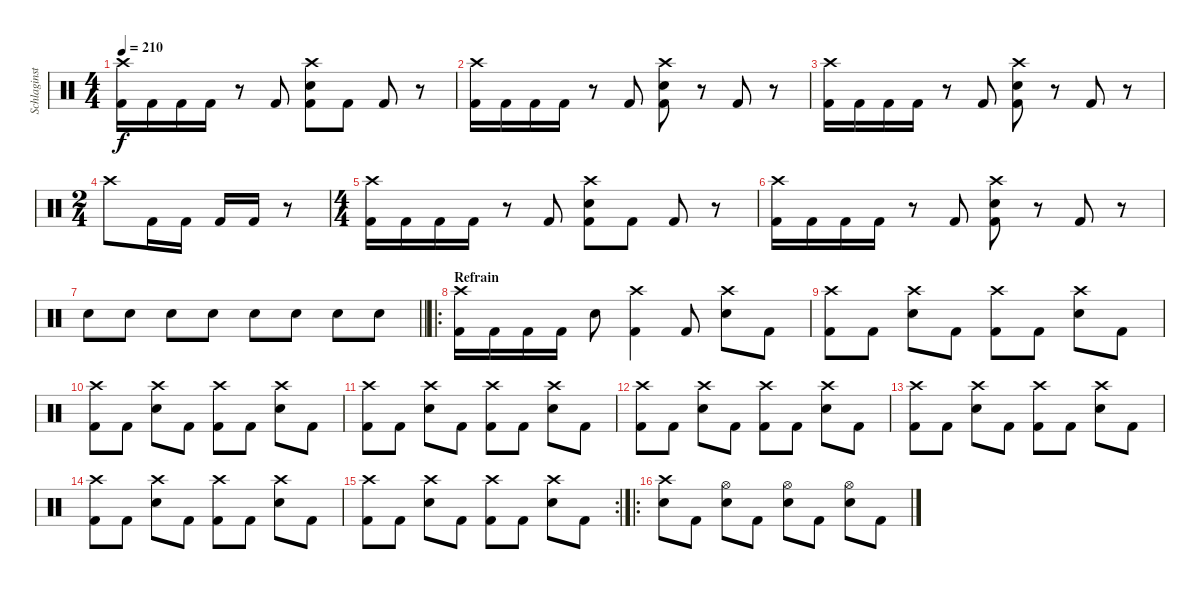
\track ("Schlaginstrumente - Auswahl" "Schlaginst") {instrument percussion}
\staff {score}
\articulation defaults
\ts (4 4)
\tempo 210
\clef neutral
\ks c
("Crash high (hit)" "Kick (hit) 2").16{dy f} "Kick (hit) 2".16 "Kick (hit) 2".16 "Kick (hit) 2".16 r.8 "Kick (hit) 2".8 ("Crash high (hit)" "Snare (hit) 2" "Kick (hit) 2").8 "Kick (hit) 2".8 "Kick (hit) 2".8 r.8 |
("Crash high (hit)" "Kick (hit) 2").16 "Kick (hit) 2".16 "Kick (hit) 2".16 "Kick (hit) 2".16 r.8 "Kick (hit) 2".8 ("Crash high (hit)" "Snare (hit) 2" "Kick (hit) 2").8 r.8 "Kick (hit) 2".8 r.8 |
("Crash high (hit)" "Kick (hit) 2").16 "Kick (hit) 2".16 "Kick (hit) 2".16 "Kick (hit) 2".16 r.8 "Kick (hit) 2".8 ("Crash high (hit)" "Snare (hit) 2" "Kick (hit) 2").8 r.8 "Kick (hit) 2".8 r.8 |
\ts (2 4)
"Crash high (hit)".8 "Kick (hit) 2".16 "Kick (hit) 2".16 "Kick (hit) 2".16 "Kick (hit) 2".16 r.8 |
\ts (4 4)
("Crash high (hit)" "Kick (hit) 2").16 "Kick (hit) 2".16 "Kick (hit) 2".16 "Kick (hit) 2".16 r.8 "Kick (hit) 2".8 ("Crash high (hit)" "Snare (hit) 2" "Kick (hit) 2").8 "Kick (hit) 2".8 "Kick (hit) 2".8 r.8 |
("Crash high (hit)" "Kick (hit) 2").16 "Kick (hit) 2".16 "Kick (hit) 2".16 "Kick (hit) 2".16 r.8 "Kick (hit) 2".8 ("Crash high (hit)" "Snare (hit) 2" "Kick (hit) 2").8 r.8 "Kick (hit) 2".8 r.8 |
\barLineRight lightlight "Snare (hit) 2".8 "Snare (hit) 2".8 "Snare (hit) 2".8 "Snare (hit) 2".8 "Snare (hit) 2".8 "Snare (hit) 2".8 "Snare (hit) 2".8 "Snare (hit) 2".8
|
\ro
\section ("" "Refrain")
("Crash high (hit)" "Kick (hit) 2").16 "Kick (hit) 2".16 "Kick (hit) 2".16 "Kick (hit) 2".16 "Snare (hit) 2".8 ("Crash high (hit)" "Kick (hit) 2").4 "Kick (hit) 2".8 ("Crash high (hit)" "Snare (hit) 2").8 "Kick (hit) 2".8 |
("Crash high (hit)" "Kick (hit) 2").8 "Kick (hit) 2".8 ("Crash high (hit)" "Snare (hit) 2").8 "Kick (hit) 2".8 ("Crash high (hit)" "Kick (hit) 2").8 "Kick (hit) 2".8 ("Crash high (hit)" "Snare (hit) 2").8 "Kick (hit) 2".8 |
("Crash high (hit)" "Kick (hit) 2").8 "Kick (hit) 2".8 ("Crash high (hit)" "Snare (hit) 2").8 "Kick (hit) 2".8 ("Crash high (hit)" "Kick (hit) 2").8 "Kick (hit) 2".8 ("Crash high (hit)" "Snare (hit) 2").8 "Kick (hit) 2".8 |
("Crash high (hit)" "Kick (hit) 2").8 "Kick (hit) 2".8 ("Crash high (hit)" "Snare (hit) 2").8 "Kick (hit) 2".8 ("Crash high (hit)" "Kick (hit) 2").8 "Kick (hit) 2".8 ("Crash high (hit)" "Snare (hit) 2").8 "Kick (hit) 2".8 |
("Crash high (hit)" "Kick (hit) 2").8 "Kick (hit) 2".8 ("Crash high (hit)" "Snare (hit) 2").8 "Kick (hit) 2".8 ("Crash high (hit)" "Kick (hit) 2").8 "Kick (hit) 2".8 ("Crash high (hit)" "Snare (hit) 2").8 "Kick (hit) 2".8 |
("Crash high (hit)" "Kick (hit) 2").8 "Kick (hit) 2".8 ("Crash high (hit)" "Snare (hit) 2").8 "Kick (hit) 2".8 ("Crash high (hit)" "Kick (hit) 2").8 "Kick (hit) 2".8 ("Crash high (hit)" "Snare (hit) 2").8 "Kick (hit) 2".8 |
("Crash high (hit)" "Kick (hit) 2").8 "Kick (hit) 2".8 ("Crash high (hit)" "Snare (hit) 2").8 "Kick (hit) 2".8 ("Crash high (hit)" "Kick (hit) 2").8 "Kick (hit) 2".8 ("Crash high (hit)" "Snare (hit) 2").8 "Kick (hit) 2".8 |
\rc 2
("Crash high (hit)" "Kick (hit) 2").8 "Kick (hit) 2".8 ("Crash high (hit)" "Snare (hit) 2").8 "Kick (hit) 2".8 ("Crash high (hit)" "Kick (hit) 2").8 "Kick (hit) 2".8 ("Crash high (hit)" "Snare (hit) 2").8 "Kick (hit) 2".8 |
\ro
("Crash high (hit)" "Snare (hit) 2").8 "Kick (hit) 2".8 ("Hi-Hat (open)" "Snare (hit) 2").8 "Kick (hit) 2".8 ("Hi-Hat (open)" "Snare (hit) 2").8 "Kick (hit) 2".8 ("Hi-Hat (open)" "Snare (hit) 2").8 "Kick (hit) 2".8
